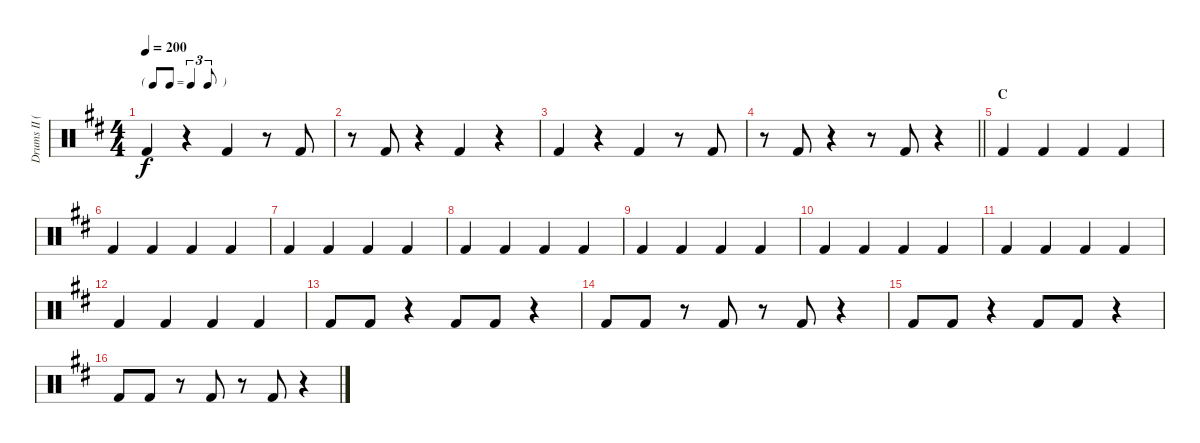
\track ("Drums II (Ruka)" "Drums II (") {instrument percussion}
\staff {score}
\articulation defaults
\ts (4 4)
\tf triplet8th
\tempo 200
\clef neutral
\ks d "Kick (hit) 2".4{dy f}
r.4 "Kick (hit) 2".4 r.8 "Kick (hit) 2".8 |
r.8 "Kick (hit) 2".8 r.4 "Kick (hit) 2".4 r.4 |
"Kick (hit) 2".4 r.4 "Kick (hit) 2".4 r.8 "Kick (hit) 2".8 |
\barLineRight lightlight
r.8 "Kick (hit) 2".8 r.4 r.8 "Kick (hit) 2".8 r.4 |
\section ("" "C")
"Kick (hit) 2".4 "Kick (hit) 2".4 "Kick (hit) 2".4 "Kick (hit) 2".4 |
"Kick (hit) 2".4 "Kick (hit) 2".4 "Kick (hit) 2".4 "Kick (hit) 2".4 |
"Kick (hit) 2".4 "Kick (hit) 2".4 "Kick (hit) 2".4 "Kick (hit) 2".4 |
"Kick (hit) 2".4 "Kick (hit) 2".4 "Kick (hit) 2".4 "Kick (hit) 2".4 |
"Kick (hit) 2".4 "Kick (hit) 2".4 "Kick (hit) 2".4 "Kick (hit) 2".4 |
"Kick (hit) 2".4 "Kick (hit) 2".4 "Kick (hit) 2".4 "Kick (hit) 2".4 |
"Kick (hit) 2".4 "Kick (hit) 2".4 "Kick (hit) 2".4 "Kick (hit) 2".4 |
"Kick (hit) 2".4 "Kick (hit) 2".4 "Kick (hit) 2".4 "Kick (hit) 2".4 |
"Kick (hit) 2".8 "Kick (hit) 2".8 r.4 "Kick (hit) 2".8 "Kick (hit) 2".8 r.4 |
"Kick (hit) 2".8 "Kick (hit) 2".8 r.8 "Kick (hit) 2".8 r.8 "Kick (hit) 2".8 r.4 |
"Kick (hit) 2".8 "Kick (hit) 2".8 r.4 "Kick (hit) 2".8 "Kick (hit) 2".8 r.4 |
"Kick (hit) 2".8 "Kick (hit) 2".8 r.8 "Kick (hit) 2".8 r.8 "Kick (hit) 2".8 r.4
